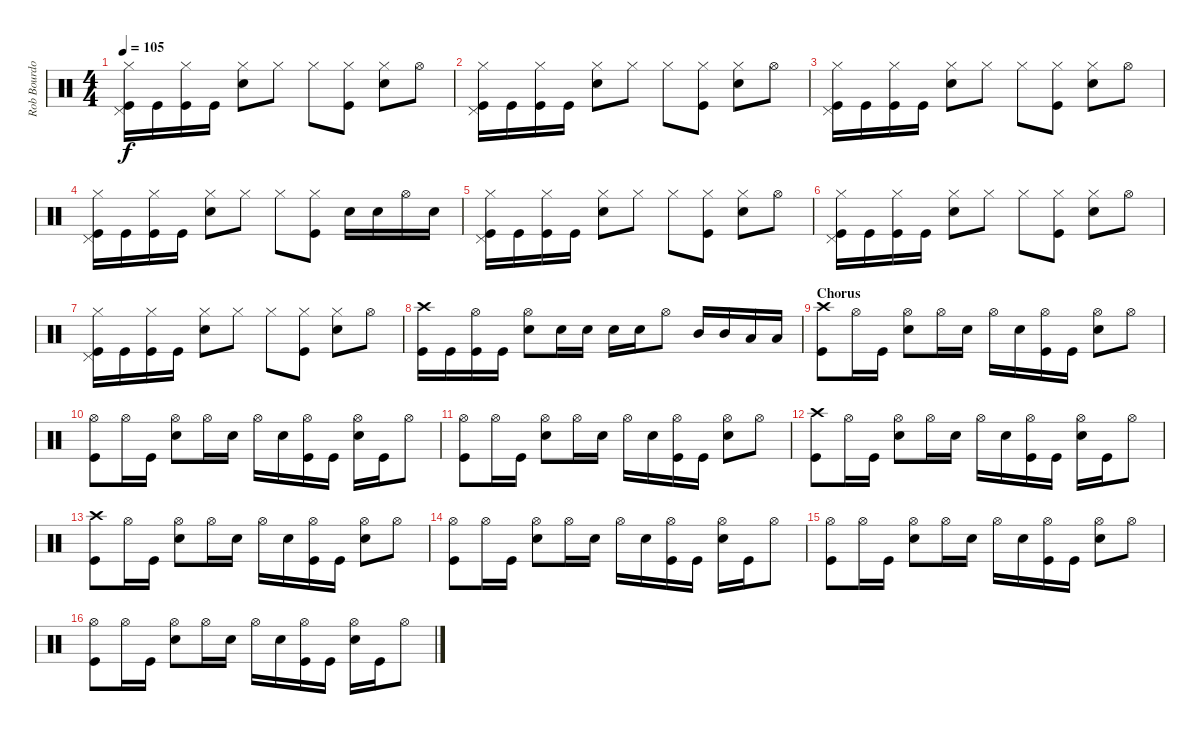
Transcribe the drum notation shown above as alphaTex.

\track ("Rob Bourdon - Drums" "Rob Bourdo") {instrument percussion}
\staff {score}
\articulation defaults
\ts (4 4)
\tempo 105
\clef neutral
\ks c
("Hi-Hat (closed)" "Pedal Hi-Hat (hit)" "Kick (hit)").16{dy f} "Kick (hit)".16 ("Hi-Hat (closed)" "Kick (hit)").16 "Kick (hit)".16 ("Hi-Hat (closed)" "Electric Snare (hit)").8 "Hi-Hat (closed)".8 "Hi-Hat (closed)".8 ("Hi-Hat (closed)" "Kick (hit)").8 ("Hi-Hat (closed)" "Electric Snare (hit)").8 "Hi-Hat (open)".8 |
("Hi-Hat (closed)" "Pedal Hi-Hat (hit)" "Kick (hit)").16 "Kick (hit)".16 ("Hi-Hat (closed)" "Kick (hit)").16 "Kick (hit)".16 ("Hi-Hat (closed)" "Electric Snare (hit)").8 "Hi-Hat (closed)".8 "Hi-Hat (closed)".8 ("Hi-Hat (closed)" "Kick (hit)").8 ("Hi-Hat (closed)" "Electric Snare (hit)").8 "Hi-Hat (open)".8 |
("Hi-Hat (closed)" "Pedal Hi-Hat (hit)" "Kick (hit)").16 "Kick (hit)".16 ("Hi-Hat (closed)" "Kick (hit)").16 "Kick (hit)".16 ("Hi-Hat (closed)" "Electric Snare (hit)").8 "Hi-Hat (closed)".8 "Hi-Hat (closed)".8 ("Hi-Hat (closed)" "Kick (hit)").8 ("Hi-Hat (closed)" "Electric Snare (hit)").8 "Hi-Hat (open)".8 |
("Hi-Hat (closed)" "Pedal Hi-Hat (hit)" "Kick (hit)").16 "Kick (hit)".16 ("Hi-Hat (closed)" "Kick (hit)").16 "Kick (hit)".16 ("Hi-Hat (closed)" "Electric Snare (hit)").8 "Hi-Hat (closed)".8 "Hi-Hat (closed)".8 ("Hi-Hat (closed)" "Kick (hit)").8 "Electric Snare (hit)".16 "Electric Snare (hit)".16 "Hi-Hat (open)".16 "Electric Snare (hit)".16 |
("Hi-Hat (closed)" "Pedal Hi-Hat (hit)" "Kick (hit)").16 "Kick (hit)".16 ("Hi-Hat (closed)" "Kick (hit)").16 "Kick (hit)".16 ("Hi-Hat (closed)" "Electric Snare (hit)").8 "Hi-Hat (closed)".8 "Hi-Hat (closed)".8 ("Hi-Hat (closed)" "Kick (hit)").8 ("Hi-Hat (closed)" "Electric Snare (hit)").8 "Hi-Hat (open)".8 |
("Hi-Hat (closed)" "Pedal Hi-Hat (hit)" "Kick (hit)").16 "Kick (hit)".16 ("Hi-Hat (closed)" "Kick (hit)").16 "Kick (hit)".16 ("Hi-Hat (closed)" "Electric Snare (hit)").8 "Hi-Hat (closed)".8 "Hi-Hat (closed)".8 ("Hi-Hat (closed)" "Kick (hit)").8 ("Hi-Hat (closed)" "Electric Snare (hit)").8 "Hi-Hat (open)".8 |
("Hi-Hat (closed)" "Pedal Hi-Hat (hit)" "Kick (hit)").16 "Kick (hit)".16 ("Hi-Hat (closed)" "Kick (hit)").16 "Kick (hit)".16 ("Hi-Hat (closed)" "Electric Snare (hit)").8 "Hi-Hat (closed)".8 "Hi-Hat (closed)".8 ("Hi-Hat (closed)" "Kick (hit)").8 ("Hi-Hat (closed)" "Electric Snare (hit)").8 "Hi-Hat (open)".8 |
("Crash high (hit)" "Kick (hit)").16 "Kick (hit)".16 ("Hi-Hat (open)" "Kick (hit)").16 "Kick (hit)".16 ("Hi-Hat (open)" "Electric Snare (hit)").8 "Electric Snare (hit)".16 "Electric Snare (hit)".16 "Electric Snare (hit)".16 "Electric Snare (hit)".16 "Hi-Hat (open)".8 "Mid Tom (hit)".16 "Mid Tom (hit)".16 "Low Tom (hit)".16 "Low Tom (hit)".16 |
\section ("" "Chorus")
("Crash high (hit)" "Kick (hit)").8 "Hi-Hat (open)".16 "Kick (hit)".16 ("Hi-Hat (open)" "Electric Snare (hit)").8 "Hi-Hat (open)".16 "Electric Snare (hit)".16 "Hi-Hat (open)".16 "Electric Snare (hit)".16 ("Hi-Hat (open)" "Kick (hit)").16 "Kick (hit)".16 ("Hi-Hat (open)" "Electric Snare (hit)").8 "Hi-Hat (open)".8 |
("Hi-Hat (open)" "Kick (hit)").8 "Hi-Hat (open)".16 "Kick (hit)".16 ("Hi-Hat (open)" "Electric Snare (hit)").8 "Hi-Hat (open)".16 "Electric Snare (hit)".16 "Hi-Hat (open)".16 "Electric Snare (hit)".16 ("Hi-Hat (open)" "Kick (hit)").16 "Kick (hit)".16 ("Hi-Hat (open)" "Electric Snare (hit)").16 "Kick (hit)".16 "Hi-Hat (open)".8 |
("Hi-Hat (open)" "Kick (hit)").8 "Hi-Hat (open)".16 "Kick (hit)".16 ("Hi-Hat (open)" "Electric Snare (hit)").8 "Hi-Hat (open)".16 "Electric Snare (hit)".16 "Hi-Hat (open)".16 "Electric Snare (hit)".16 ("Hi-Hat (open)" "Kick (hit)").16 "Kick (hit)".16 ("Hi-Hat (open)" "Electric Snare (hit)").8 "Hi-Hat (open)".8 |
("Crash high (hit)" "Kick (hit)").8 "Hi-Hat (open)".16 "Kick (hit)".16 ("Hi-Hat (open)" "Electric Snare (hit)").8 "Hi-Hat (open)".16 "Electric Snare (hit)".16 "Hi-Hat (open)".16 "Electric Snare (hit)".16 ("Hi-Hat (open)" "Kick (hit)").16 "Kick (hit)".16 ("Hi-Hat (open)" "Electric Snare (hit)").16 "Kick (hit)".16 "Hi-Hat (open)".8 |
("Crash high (hit)" "Kick (hit)").8 "Hi-Hat (open)".16 "Kick (hit)".16 ("Hi-Hat (open)" "Electric Snare (hit)").8 "Hi-Hat (open)".16 "Electric Snare (hit)".16 "Hi-Hat (open)".16 "Electric Snare (hit)".16 ("Hi-Hat (open)" "Kick (hit)").16 "Kick (hit)".16 ("Hi-Hat (open)" "Electric Snare (hit)").8 "Hi-Hat (open)".8 |
("Hi-Hat (open)" "Kick (hit)").8 "Hi-Hat (open)".16 "Kick (hit)".16 ("Hi-Hat (open)" "Electric Snare (hit)").8 "Hi-Hat (open)".16 "Electric Snare (hit)".16 "Hi-Hat (open)".16 "Electric Snare (hit)".16 ("Hi-Hat (open)" "Kick (hit)").16 "Kick (hit)".16 ("Hi-Hat (open)" "Electric Snare (hit)").16 "Kick (hit)".16 "Hi-Hat (open)".8 |
("Hi-Hat (open)" "Kick (hit)").8 "Hi-Hat (open)".16 "Kick (hit)".16 ("Hi-Hat (open)" "Electric Snare (hit)").8 "Hi-Hat (open)".16 "Electric Snare (hit)".16 "Hi-Hat (open)".16 "Electric Snare (hit)".16 ("Hi-Hat (open)" "Kick (hit)").16 "Kick (hit)".16 ("Hi-Hat (open)" "Electric Snare (hit)").8 "Hi-Hat (open)".8 |
("Hi-Hat (open)" "Kick (hit)").8 "Hi-Hat (open)".16 "Kick (hit)".16 ("Hi-Hat (open)" "Electric Snare (hit)").8 "Hi-Hat (open)".16 "Electric Snare (hit)".16 "Hi-Hat (open)".16 "Electric Snare (hit)".16 ("Hi-Hat (open)" "Kick (hit)").16 "Kick (hit)".16 ("Hi-Hat (open)" "Electric Snare (hit)").16 "Kick (hit)".16 "Hi-Hat (open)".8
